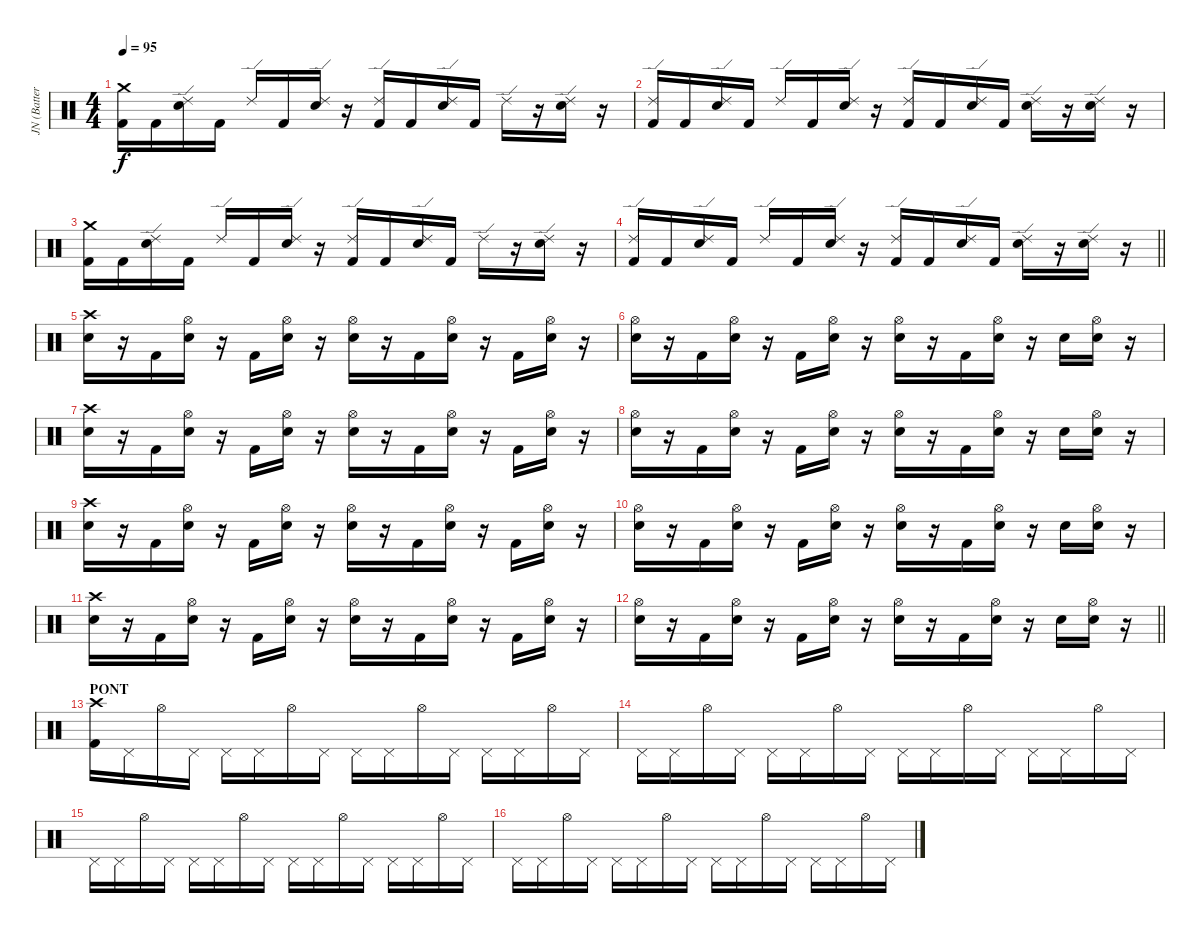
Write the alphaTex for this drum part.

\track ("JN (Batterie)" "JN (Batter") {instrument percussion}
\staff {score}
\articulation defaults
\ts (4 4)
\tempo 95
\clef neutral
\ks c
("Crash medium (hit)" "Kick (hit) 2").16{dy f} "Kick (hit) 2".16 ("Ride (edge) 2" "Electric Snare (hit)").16 "Kick (hit) 2".16 "Ride (edge) 2".16 "Kick (hit) 2".16 ("Ride (edge) 2" "Electric Snare (hit)").16 r.16 ("Ride (edge) 2" "Kick (hit) 2").16 "Kick (hit) 2".16 ("Ride (edge) 2" "Electric Snare (hit)").16 "Kick (hit) 2".16 "Ride (edge) 2".16 r.16 ("Ride (edge) 2" "Electric Snare (hit)").16 r.16 |
("Ride (edge) 2" "Kick (hit) 2").16 "Kick (hit) 2".16 ("Ride (edge) 2" "Electric Snare (hit)").16 "Kick (hit) 2".16 "Ride (edge) 2".16 "Kick (hit) 2".16 ("Ride (edge) 2" "Electric Snare (hit)").16 r.16 ("Ride (edge) 2" "Kick (hit) 2").16 "Kick (hit) 2".16 ("Ride (edge) 2" "Electric Snare (hit)").16 "Kick (hit) 2".16 ("Ride (edge) 2" "Electric Snare (hit)").16 r.16 ("Ride (edge) 2" "Electric Snare (hit)").16 r.16 |
("Crash medium (hit)" "Kick (hit) 2").16 "Kick (hit) 2".16 ("Ride (edge) 2" "Electric Snare (hit)").16 "Kick (hit) 2".16 "Ride (edge) 2".16 "Kick (hit) 2".16 ("Ride (edge) 2" "Electric Snare (hit)").16 r.16 ("Ride (edge) 2" "Kick (hit) 2").16 "Kick (hit) 2".16 ("Ride (edge) 2" "Electric Snare (hit)").16 "Kick (hit) 2".16 "Ride (edge) 2".16 r.16 ("Ride (edge) 2" "Electric Snare (hit)").16 r.16 |
\barLineRight lightlight
("Ride (edge) 2" "Kick (hit) 2").16 "Kick (hit) 2".16 ("Ride (edge) 2" "Electric Snare (hit)").16 "Kick (hit) 2".16 "Ride (edge) 2".16 "Kick (hit) 2".16 ("Ride (edge) 2" "Electric Snare (hit)").16 r.16 ("Ride (edge) 2" "Kick (hit) 2").16 "Kick (hit) 2".16 ("Ride (edge) 2" "Electric Snare (hit)").16 "Kick (hit) 2".16 ("Ride (edge) 2" "Electric Snare (hit)").16 r.16 ("Ride (edge) 2" "Electric Snare (hit)").16 r.16 |
("Crash high (hit)" "Electric Snare (hit)").16 r.16 "Kick (hit) 2".16 ("Hi-Hat (open)" "Electric Snare (hit)").16 r.16 "Kick (hit) 2".16 ("Hi-Hat (open)" "Electric Snare (hit)").16 r.16 ("Hi-Hat (open)" "Electric Snare (hit)").16 r.16 "Kick (hit) 2".16 ("Hi-Hat (open)" "Electric Snare (hit)").16 r.16 "Kick (hit) 2".16 ("Hi-Hat (open)" "Electric Snare (hit)").16 r.16 |
("Hi-Hat (open)" "Electric Snare (hit)").16 r.16 "Kick (hit) 2".16 ("Hi-Hat (open)" "Electric Snare (hit)").16 r.16 "Kick (hit) 2".16 ("Hi-Hat (open)" "Electric Snare (hit)").16 r.16 ("Hi-Hat (open)" "Electric Snare (hit)").16 r.16 "Kick (hit) 2".16 ("Hi-Hat (open)" "Electric Snare (hit)").16 r.16 "Electric Snare (hit)".16 ("Hi-Hat (open)" "Electric Snare (hit)").16 r.16 |
("Crash high (hit)" "Electric Snare (hit)").16 r.16 "Kick (hit) 2".16 ("Hi-Hat (open)" "Electric Snare (hit)").16 r.16 "Kick (hit) 2".16 ("Hi-Hat (open)" "Electric Snare (hit)").16 r.16 ("Hi-Hat (open)" "Electric Snare (hit)").16 r.16 "Kick (hit) 2".16 ("Hi-Hat (open)" "Electric Snare (hit)").16 r.16 "Kick (hit) 2".16 ("Hi-Hat (open)" "Electric Snare (hit)").16 r.16 |
("Hi-Hat (open)" "Electric Snare (hit)").16 r.16 "Kick (hit) 2".16 ("Hi-Hat (open)" "Electric Snare (hit)").16 r.16 "Kick (hit) 2".16 ("Hi-Hat (open)" "Electric Snare (hit)").16 r.16 ("Hi-Hat (open)" "Electric Snare (hit)").16 r.16 "Kick (hit) 2".16 ("Hi-Hat (open)" "Electric Snare (hit)").16 r.16 "Electric Snare (hit)".16 ("Hi-Hat (open)" "Electric Snare (hit)").16 r.16 |
("Crash high (hit)" "Electric Snare (hit)").16 r.16 "Kick (hit) 2".16 ("Hi-Hat (open)" "Electric Snare (hit)").16 r.16 "Kick (hit) 2".16 ("Hi-Hat (open)" "Electric Snare (hit)").16 r.16 ("Hi-Hat (open)" "Electric Snare (hit)").16 r.16 "Kick (hit) 2".16 ("Hi-Hat (open)" "Electric Snare (hit)").16 r.16 "Kick (hit) 2".16 ("Hi-Hat (open)" "Electric Snare (hit)").16 r.16 |
("Hi-Hat (open)" "Electric Snare (hit)").16 r.16 "Kick (hit) 2".16 ("Hi-Hat (open)" "Electric Snare (hit)").16 r.16 "Kick (hit) 2".16 ("Hi-Hat (open)" "Electric Snare (hit)").16 r.16 ("Hi-Hat (open)" "Electric Snare (hit)").16 r.16 "Kick (hit) 2".16 ("Hi-Hat (open)" "Electric Snare (hit)").16 r.16 "Electric Snare (hit)".16 ("Hi-Hat (open)" "Electric Snare (hit)").16 r.16 |
("Crash high (hit)" "Electric Snare (hit)").16 r.16 "Kick (hit) 2".16 ("Hi-Hat (open)" "Electric Snare (hit)").16 r.16 "Kick (hit) 2".16 ("Hi-Hat (open)" "Electric Snare (hit)").16 r.16 ("Hi-Hat (open)" "Electric Snare (hit)").16 r.16 "Kick (hit) 2".16 ("Hi-Hat (open)" "Electric Snare (hit)").16 r.16 "Kick (hit) 2".16 ("Hi-Hat (open)" "Electric Snare (hit)").16 r.16 |
\barLineRight lightlight
("Hi-Hat (open)" "Electric Snare (hit)").16 r.16 "Kick (hit) 2".16 ("Hi-Hat (open)" "Electric Snare (hit)").16 r.16 "Kick (hit) 2".16 ("Hi-Hat (open)" "Electric Snare (hit)").16 r.16 ("Hi-Hat (open)" "Electric Snare (hit)").16 r.16 "Kick (hit) 2".16 ("Hi-Hat (open)" "Electric Snare (hit)").16 r.16 "Electric Snare (hit)".16 ("Hi-Hat (open)" "Electric Snare (hit)").16 r.16 |
\section ("" "PONT")
("Crash high (hit)" "Kick (hit) 2").16 "Pedal Hi-Hat (hit)".16 "Hi-Hat (open)".16 "Pedal Hi-Hat (hit)".16 "Pedal Hi-Hat (hit)".16 "Pedal Hi-Hat (hit)".16 "Hi-Hat (open)".16 "Pedal Hi-Hat (hit)".16 "Pedal Hi-Hat (hit)".16 "Pedal Hi-Hat (hit)".16 "Hi-Hat (open)".16 "Pedal Hi-Hat (hit)".16 "Pedal Hi-Hat (hit)".16 "Pedal Hi-Hat (hit)".16 "Hi-Hat (open)".16 "Pedal Hi-Hat (hit)".16 |
"Pedal Hi-Hat (hit)".16 "Pedal Hi-Hat (hit)".16 "Hi-Hat (open)".16 "Pedal Hi-Hat (hit)".16 "Pedal Hi-Hat (hit)".16 "Pedal Hi-Hat (hit)".16 "Hi-Hat (open)".16 "Pedal Hi-Hat (hit)".16 "Pedal Hi-Hat (hit)".16 "Pedal Hi-Hat (hit)".16 "Hi-Hat (open)".16 "Pedal Hi-Hat (hit)".16 "Pedal Hi-Hat (hit)".16 "Pedal Hi-Hat (hit)".16 "Hi-Hat (open)".16 "Pedal Hi-Hat (hit)".16 |
"Pedal Hi-Hat (hit)".16 "Pedal Hi-Hat (hit)".16 "Hi-Hat (open)".16 "Pedal Hi-Hat (hit)".16 "Pedal Hi-Hat (hit)".16 "Pedal Hi-Hat (hit)".16 "Hi-Hat (open)".16 "Pedal Hi-Hat (hit)".16 "Pedal Hi-Hat (hit)".16 "Pedal Hi-Hat (hit)".16 "Hi-Hat (open)".16 "Pedal Hi-Hat (hit)".16 "Pedal Hi-Hat (hit)".16 "Pedal Hi-Hat (hit)".16 "Hi-Hat (open)".16 "Pedal Hi-Hat (hit)".16 |
"Pedal Hi-Hat (hit)".16 "Pedal Hi-Hat (hit)".16 "Hi-Hat (open)".16 "Pedal Hi-Hat (hit)".16 "Pedal Hi-Hat (hit)".16 "Pedal Hi-Hat (hit)".16 "Hi-Hat (open)".16 "Pedal Hi-Hat (hit)".16 "Pedal Hi-Hat (hit)".16 "Pedal Hi-Hat (hit)".16 "Hi-Hat (open)".16 "Pedal Hi-Hat (hit)".16 "Pedal Hi-Hat (hit)".16 "Pedal Hi-Hat (hit)".16 "Hi-Hat (open)".16 "Pedal Hi-Hat (hit)".16
